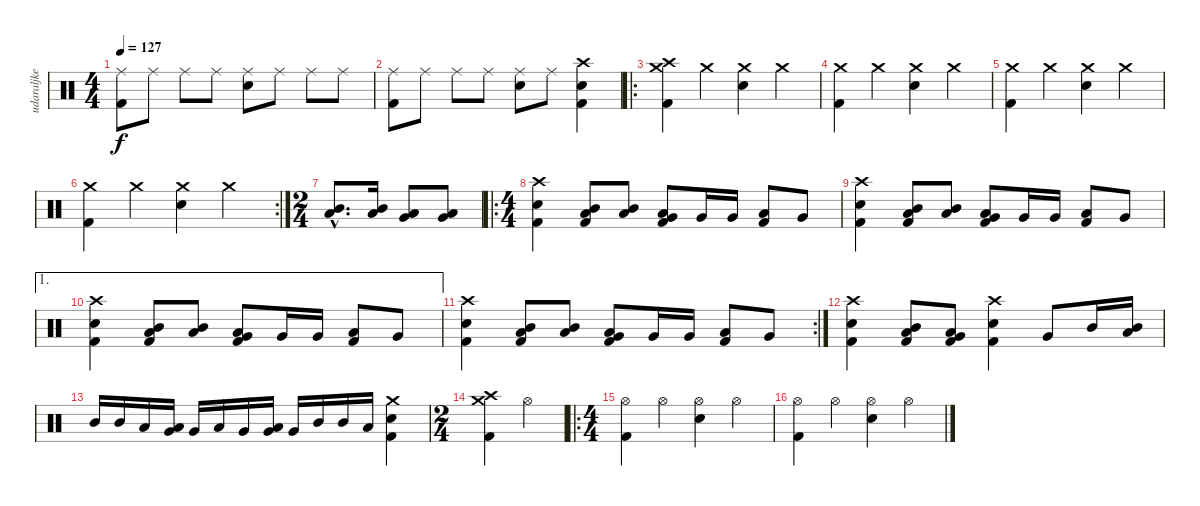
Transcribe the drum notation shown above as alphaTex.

\track ("udaraljke" "udaraljke") {instrument percussion}
\staff {score}
\articulation defaults
\ts (4 4)
\tempo 127
\clef neutral
\ks c
("Ride (middle)" "Kick (hit) 2").8{dy f} "Ride (middle)".8 "Ride (middle)".8 "Ride (middle)".8 ("Ride (middle)" "Electric Snare (hit)").8 "Ride (middle)".8 "Ride (middle)".8 "Ride (middle)".8 |
("Ride (middle)" "Kick (hit) 2").8 "Ride (middle)".8 "Ride (middle)".8 "Ride (middle)".8 ("Ride (middle)" "Electric Snare (hit)").8 "Ride (middle)".8 ("Crash high (hit)" "Electric Snare (hit)" "Kick (hit) 2").4 |
\ro
("Crash high (hit)" "Crash medium (hit)" "Kick (hit) 2").4 "Crash medium (hit)".4 ("Crash medium (hit)" "Electric Snare (hit)").4 "Crash medium (hit)".4 |
("Crash medium (hit)" "Kick (hit) 2").4 "Crash medium (hit)".4 ("Crash medium (hit)" "Electric Snare (hit)").4 "Crash medium (hit)".4 |
("Crash medium (hit)" "Kick (hit) 2").4 "Crash medium (hit)".4 ("Crash medium (hit)" "Electric Snare (hit)").4 "Crash medium (hit)".4 |
\rc 2
("Crash medium (hit)" "Kick (hit) 2").4 "Crash medium (hit)".4 ("Crash medium (hit)" "Electric Snare (hit)").4 "Crash medium (hit)".4 |
\ts (2 4)
("Mid Tom (hit)"{hac} "Low Tom (hit)"{hac}).8{d} ("Mid Tom (hit)" "Low Tom (hit)").16 ("Low Tom (hit)" "Very Low Tom (hit)").8 ("Low Tom (hit)" "Very Low Tom (hit)").8 |
\ro
\ts (4 4)
("Crash high (hit)" "Electric Snare (hit)" "Kick (hit) 2").4 ("Mid Tom (hit)" "Low Tom (hit)" "Kick (hit) 2").8 ("Mid Tom (hit)" "Low Tom (hit)").8 ("Low Tom (hit)" "Very Low Tom (hit)" "Kick (hit) 2").8 "Very Low Tom (hit)".16 "Very Low Tom (hit)".16 ("Low Tom (hit)" "Kick (hit) 2").8 "Very Low Tom (hit)".8 |
("Crash high (hit)" "Electric Snare (hit)" "Kick (hit) 2").4 ("Mid Tom (hit)" "Low Tom (hit)" "Kick (hit) 2").8 ("Mid Tom (hit)" "Low Tom (hit)").8 ("Low Tom (hit)" "Very Low Tom (hit)" "Kick (hit) 2").8 "Very Low Tom (hit)".16 "Very Low Tom (hit)".16 ("Low Tom (hit)" "Kick (hit) 2").8 "Very Low Tom (hit)".8 |
\ae 1
("Crash high (hit)" "Electric Snare (hit)" "Kick (hit) 2").4 ("Mid Tom (hit)" "Low Tom (hit)" "Kick (hit) 2").8 ("Mid Tom (hit)" "Low Tom (hit)").8 ("Low Tom (hit)" "Very Low Tom (hit)" "Kick (hit) 2").8 "Very Low Tom (hit)".16 "Very Low Tom (hit)".16 ("Low Tom (hit)" "Kick (hit) 2").8 "Very Low Tom (hit)".8 |
\rc 2
("Crash high (hit)" "Electric Snare (hit)" "Kick (hit) 2").4 ("Mid Tom (hit)" "Low Tom (hit)" "Kick (hit) 2").8 ("Mid Tom (hit)" "Low Tom (hit)").8 ("Low Tom (hit)" "Very Low Tom (hit)" "Kick (hit) 2").8 "Very Low Tom (hit)".16 "Very Low Tom (hit)".16 ("Low Tom (hit)" "Kick (hit) 2").8 "Very Low Tom (hit)".8 |
("Crash high (hit)" "Electric Snare (hit)" "Kick (hit) 2").4 ("Mid Tom (hit)" "Low Tom (hit)" "Kick (hit) 2").8 ("Low Tom (hit)" "Very Low Tom (hit)" "Kick (hit) 2").8 ("Crash high (hit)" "Electric Snare (hit)" "Kick (hit) 2").4 "Very Low Tom (hit)".8 "Mid Tom (hit)".16 ("Mid Tom (hit)" "Low Tom (hit)").16 |
"Mid Tom (hit)".16 "Mid Tom (hit)".16 "Low Tom (hit)".16 ("Low Tom (hit)" "Very Low Tom (hit)").16 "Very Low Tom (hit)".16 "Low Tom (hit)".16 "Very Low Tom (hit)".16 ("Low Tom (hit)" "Very Low Tom (hit)").16 "Very Low Tom (hit)".16 "Mid Tom (hit)".16 "Mid Tom (hit)".16 "Low Tom (hit)".16 ("Crash medium (hit)" "Electric Snare (hit)" "Kick (hit) 2").4 |
\ts (2 4)
("Crash high (hit)" "Crash medium (hit)" "Kick (hit) 2").4 "Hi-Hat (open)".4 |
\ro
\ts (4 4)
("Hi-Hat (open)" "Kick (hit) 2").4 "Hi-Hat (open)".4 ("Hi-Hat (open)" "Electric Snare (hit)").4 "Hi-Hat (open)".4 |
("Hi-Hat (open)" "Kick (hit) 2").4 "Hi-Hat (open)".4 ("Hi-Hat (open)" "Electric Snare (hit)").4 "Hi-Hat (open)".4
